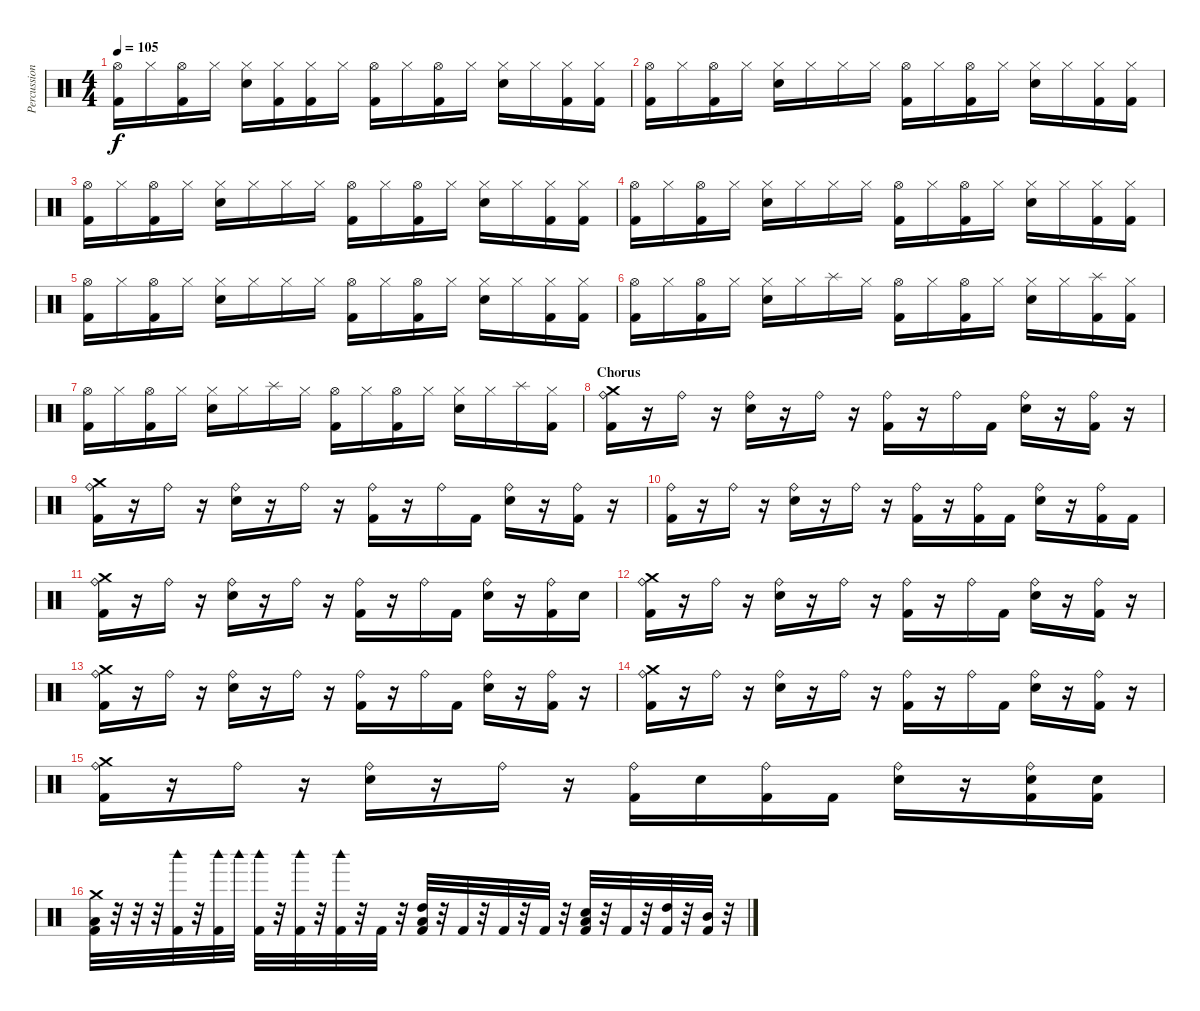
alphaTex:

\track ("Percussion" "Percussion") {instrument percussion}
\staff {score}
\articulation defaults
\ts (4 4)
\tempo 105
\clef neutral
\ks c
("Hi-Hat (open)" "Kick (hit) 2").16{dy f} "Hi-Hat (closed)".16 ("Hi-Hat (open)" "Kick (hit) 2").16 "Hi-Hat (closed)".16 ("Hi-Hat (closed)" "Snare (hit) 2").16 ("Hi-Hat (closed)" "Kick (hit) 2").16 ("Hi-Hat (closed)" "Kick (hit) 2").16 "Hi-Hat (closed)".16 ("Hi-Hat (open)" "Kick (hit) 2").16 "Hi-Hat (closed)".16 ("Hi-Hat (open)" "Kick (hit) 2").16 "Hi-Hat (closed)".16 ("Hi-Hat (closed)" "Snare (hit) 2").16 "Hi-Hat (closed)".16 ("Hi-Hat (closed)" "Kick (hit) 2").16 ("Hi-Hat (closed)" "Kick (hit) 2").16 |
("Hi-Hat (open)" "Kick (hit) 2").16 "Hi-Hat (closed)".16 ("Hi-Hat (open)" "Kick (hit) 2").16 "Hi-Hat (closed)".16 ("Hi-Hat (closed)" "Snare (hit) 2").16 "Hi-Hat (closed)".16 "Hi-Hat (closed)".16 "Hi-Hat (closed)".16 ("Hi-Hat (open)" "Kick (hit) 2").16 "Hi-Hat (closed)".16 ("Hi-Hat (open)" "Kick (hit) 2").16 "Hi-Hat (closed)".16 ("Hi-Hat (closed)" "Snare (hit) 2").16 "Hi-Hat (closed)".16 ("Hi-Hat (closed)" "Kick (hit) 2").16 ("Hi-Hat (closed)" "Kick (hit) 2").16 |
("Hi-Hat (open)" "Kick (hit) 2").16 "Hi-Hat (closed)".16 ("Hi-Hat (open)" "Kick (hit) 2").16 "Hi-Hat (closed)".16 ("Hi-Hat (closed)" "Snare (hit) 2").16 "Hi-Hat (closed)".16 "Hi-Hat (closed)".16 "Hi-Hat (closed)".16 ("Hi-Hat (open)" "Kick (hit) 2").16 "Hi-Hat (closed)".16 ("Hi-Hat (open)" "Kick (hit) 2").16 "Hi-Hat (closed)".16 ("Hi-Hat (closed)" "Snare (hit) 2").16 "Hi-Hat (closed)".16 ("Hi-Hat (closed)" "Kick (hit) 2").16 ("Hi-Hat (closed)" "Kick (hit) 2").16 |
("Hi-Hat (open)" "Kick (hit) 2").16 "Hi-Hat (closed)".16 ("Hi-Hat (open)" "Kick (hit) 2").16 "Hi-Hat (closed)".16 ("Hi-Hat (closed)" "Snare (hit) 2").16 "Hi-Hat (closed)".16 "Hi-Hat (closed)".16 "Hi-Hat (closed)".16 ("Hi-Hat (open)" "Kick (hit) 2").16 "Hi-Hat (closed)".16 ("Hi-Hat (open)" "Kick (hit) 2").16 "Hi-Hat (closed)".16 ("Hi-Hat (closed)" "Snare (hit) 2").16 "Hi-Hat (closed)".16 ("Hi-Hat (closed)" "Kick (hit) 2").16 ("Hi-Hat (closed)" "Kick (hit) 2").16 |
("Hi-Hat (open)" "Kick (hit) 2").16 "Hi-Hat (closed)".16 ("Hi-Hat (open)" "Kick (hit) 2").16 "Hi-Hat (closed)".16 ("Hi-Hat (closed)" "Snare (hit) 2").16 "Hi-Hat (closed)".16 "Hi-Hat (closed)".16 "Hi-Hat (closed)".16 ("Hi-Hat (open)" "Kick (hit) 2").16 "Hi-Hat (closed)".16 ("Hi-Hat (open)" "Kick (hit) 2").16 "Hi-Hat (closed)".16 ("Hi-Hat (closed)" "Snare (hit) 2").16 "Hi-Hat (closed)".16 ("Hi-Hat (closed)" "Kick (hit) 2").16 ("Hi-Hat (closed)" "Kick (hit) 2").16 |
("Hi-Hat (open)" "Kick (hit) 2").16 "Hi-Hat (closed)".16 ("Hi-Hat (open)" "Kick (hit) 2").16 "Hi-Hat (closed)".16 ("Hi-Hat (closed)" "Snare (hit) 2").16 "Hi-Hat (closed)".16 "Splash (hit)".16 "Hi-Hat (closed)".16 ("Hi-Hat (open)" "Kick (hit) 2").16 "Hi-Hat (closed)".16 ("Hi-Hat (open)" "Kick (hit) 2").16 "Hi-Hat (closed)".16 ("Hi-Hat (closed)" "Snare (hit) 2").16 "Hi-Hat (closed)".16 ("Splash (hit)" "Kick (hit) 2").16 ("Hi-Hat (closed)" "Kick (hit) 2").16 |
("Hi-Hat (open)" "Kick (hit) 2").16 "Hi-Hat (closed)".16 ("Hi-Hat (open)" "Kick (hit) 2").16 "Hi-Hat (closed)".16 ("Hi-Hat (closed)" "Snare (hit) 2").16 "Hi-Hat (closed)".16 "Splash (hit)".16 "Hi-Hat (closed)".16 ("Hi-Hat (open)" "Kick (hit) 2").16 "Hi-Hat (closed)".16 ("Hi-Hat (open)" "Kick (hit) 2").16 "Hi-Hat (closed)".16 ("Hi-Hat (closed)" "Snare (hit) 2").16 "Hi-Hat (closed)".16 "Splash (hit)".16 ("Hi-Hat (closed)" "Kick (hit) 2").16 |
\section ("" "Chorus")
("Ride (bell)" "Crash medium (hit)" "Kick (hit) 2").16 r.16 "Ride (bell)".16 r.16 ("Ride (bell)" "Snare (hit) 2").16 r.16 "Ride (bell)".16 r.16 ("Ride (bell)" "Kick (hit) 2").16 r.16 "Ride (bell)".16 "Kick (hit) 2".16 ("Ride (bell)" "Snare (hit) 2").16 r.16 ("Ride (bell)" "Kick (hit) 2").16 r.16 |
("Ride (bell)" "Crash medium (hit)" "Kick (hit) 2").16 r.16 "Ride (bell)".16 r.16 ("Ride (bell)" "Snare (hit) 2").16 r.16 "Ride (bell)".16 r.16 ("Ride (bell)" "Kick (hit) 2").16 r.16 "Ride (bell)".16 "Kick (hit) 2".16 ("Ride (bell)" "Snare (hit) 2").16 r.16 ("Ride (bell)" "Kick (hit) 2").16 r.16 |
("Ride (bell)" "Kick (hit) 2").16 r.16 "Ride (bell)".16 r.16 ("Ride (bell)" "Snare (hit) 2").16 r.16 "Ride (bell)".16 r.16 ("Ride (bell)" "Kick (hit) 2").16 r.16 ("Ride (bell)" "Kick (hit) 2").16 "Kick (hit) 2".16 ("Ride (bell)" "Snare (hit) 2").16 r.16 ("Ride (bell)" "Kick (hit) 2").16 "Kick (hit) 2".16 |
("Ride (bell)" "Crash medium (hit)" "Kick (hit) 2").16 r.16 "Ride (bell)".16 r.16 ("Ride (bell)" "Snare (hit) 2").16 r.16 "Ride (bell)".16 r.16 ("Ride (bell)" "Kick (hit) 2").16 r.16 "Ride (bell)".16 "Kick (hit) 2".16 ("Ride (bell)" "Snare (hit) 2").16 r.16 ("Ride (bell)" "Kick (hit) 2").16 "Snare (hit) 2".16 |
("Ride (bell)" "Crash medium (hit)" "Kick (hit) 2").16 r.16 "Ride (bell)".16 r.16 ("Ride (bell)" "Snare (hit) 2").16 r.16 "Ride (bell)".16 r.16 ("Ride (bell)" "Kick (hit) 2").16 r.16 "Ride (bell)".16 "Kick (hit) 2".16 ("Ride (bell)" "Snare (hit) 2").16 r.16 ("Ride (bell)" "Kick (hit) 2").16 r.16 |
("Ride (bell)" "Crash medium (hit)" "Kick (hit) 2").16 r.16 "Ride (bell)".16 r.16 ("Ride (bell)" "Snare (hit) 2").16 r.16 "Ride (bell)".16 r.16 ("Ride (bell)" "Kick (hit) 2").16 r.16 "Ride (bell)".16 "Kick (hit) 2".16 ("Ride (bell)" "Snare (hit) 2").16 r.16 ("Ride (bell)" "Kick (hit) 2").16 r.16 |
("Ride (bell)" "Crash medium (hit)" "Kick (hit) 2").16 r.16 "Ride (bell)".16 r.16 ("Ride (bell)" "Snare (hit) 2").16 r.16 "Ride (bell)".16 r.16 ("Ride (bell)" "Kick (hit) 2").16 r.16 "Ride (bell)".16 "Kick (hit) 2".16 ("Ride (bell)" "Snare (hit) 2").16 r.16 ("Ride (bell)" "Kick (hit) 2").16 r.16 |
("Ride (bell)" "Crash medium (hit)" "Kick (hit) 2").16 r.16 "Ride (bell)".16 r.16 ("Ride (bell)" "Snare (hit) 2").16 r.16 "Ride (bell)".16 r.16 ("Ride (bell)" "Kick (hit) 2").16 "Snare (hit) 2".16 ("Ride (bell)" "Kick (hit) 2").16 "Kick (hit) 2".16 ("Ride (bell)" "Snare (hit) 2").16 r.16 ("Ride (bell)" "Snare (hit) 2" "Kick (hit) 2").16 ("Snare (hit) 2" "Kick (hit) 2").16 |
("Crash medium (hit)" "Low Tom (hit)" "Kick (hit) 2").32 r.32 r.32 r.32 ("Woodblock high (hit)" "Kick (hit) 2").32 r.32 ("Woodblock high (hit)" "Kick (hit) 2").32 "Woodblock high (hit)".32 ("Woodblock high (hit)" "Kick (hit) 2").32 r.32 ("Woodblock high (hit)" "Kick (hit) 2").32 r.32 ("Woodblock high (hit)" "Kick (hit) 2").32 r.32 "Kick (hit) 2".32 r.32 ("High Tom (hit)" "Low Tom (hit)" "Kick (hit) 2").32 r.32 "Kick (hit) 2".32 r.32 "Kick (hit) 2".32 r.32 "Kick (hit) 2".32 r.32 ("Snare (hit) 2" "Low Tom (hit)" "Kick (hit) 2").32 r.32 "Kick (hit) 2".32 r.32 ("High Tom (hit)" "Kick (hit) 2").32 r.32 ("Mid Tom (hit)" "Kick (hit) 2").32 r.32
